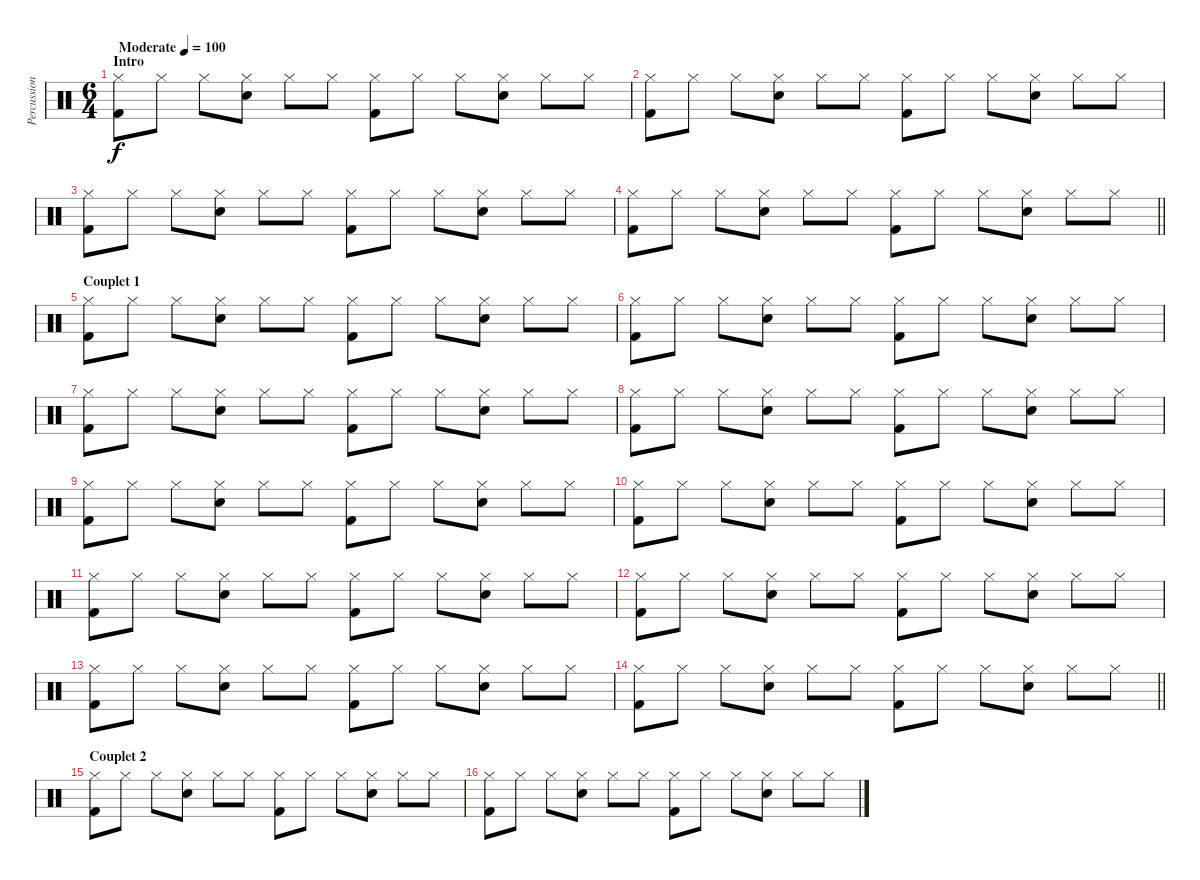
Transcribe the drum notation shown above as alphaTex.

\track ("Percussions" "Percussion") {instrument percussion}
\staff {score}
\articulation defaults
\ts (6 4)
\section ("" "Intro")
\tempo (100 "Moderate")
\clef neutral
\ks c
("Hi-Hat (closed)" "Kick (hit) 2").8{dy f} "Hi-Hat (closed)".8 "Hi-Hat (closed)".8 ("Hi-Hat (closed)" "Electric Snare (hit)").8 "Hi-Hat (closed)".8 "Hi-Hat (closed)".8 ("Hi-Hat (closed)" "Kick (hit) 2").8 "Hi-Hat (closed)".8 "Hi-Hat (closed)".8 ("Hi-Hat (closed)" "Electric Snare (hit)").8 "Hi-Hat (closed)".8 "Hi-Hat (closed)".8 |
("Hi-Hat (closed)" "Kick (hit) 2").8 "Hi-Hat (closed)".8 "Hi-Hat (closed)".8 ("Hi-Hat (closed)" "Electric Snare (hit)").8 "Hi-Hat (closed)".8 "Hi-Hat (closed)".8 ("Hi-Hat (closed)" "Kick (hit) 2").8 "Hi-Hat (closed)".8 "Hi-Hat (closed)".8 ("Hi-Hat (closed)" "Electric Snare (hit)").8 "Hi-Hat (closed)".8 "Hi-Hat (closed)".8 |
("Hi-Hat (closed)" "Kick (hit) 2").8 "Hi-Hat (closed)".8 "Hi-Hat (closed)".8 ("Hi-Hat (closed)" "Electric Snare (hit)").8 "Hi-Hat (closed)".8 "Hi-Hat (closed)".8 ("Hi-Hat (closed)" "Kick (hit) 2").8 "Hi-Hat (closed)".8 "Hi-Hat (closed)".8 ("Hi-Hat (closed)" "Electric Snare (hit)").8 "Hi-Hat (closed)".8 "Hi-Hat (closed)".8 |
\barLineRight lightlight
("Hi-Hat (closed)" "Kick (hit) 2").8 "Hi-Hat (closed)".8 "Hi-Hat (closed)".8 ("Hi-Hat (closed)" "Electric Snare (hit)").8 "Hi-Hat (closed)".8 "Hi-Hat (closed)".8 ("Hi-Hat (closed)" "Kick (hit) 2").8 "Hi-Hat (closed)".8 "Hi-Hat (closed)".8 ("Hi-Hat (closed)" "Electric Snare (hit)").8 "Hi-Hat (closed)".8 "Hi-Hat (closed)".8 |
\section ("" "Couplet 1")
("Hi-Hat (closed)" "Kick (hit) 2").8 "Hi-Hat (closed)".8 "Hi-Hat (closed)".8 ("Hi-Hat (closed)" "Electric Snare (hit)").8 "Hi-Hat (closed)".8 "Hi-Hat (closed)".8 ("Hi-Hat (closed)" "Kick (hit) 2").8 "Hi-Hat (closed)".8 "Hi-Hat (closed)".8 ("Hi-Hat (closed)" "Electric Snare (hit)").8 "Hi-Hat (closed)".8 "Hi-Hat (closed)".8 |
("Hi-Hat (closed)" "Kick (hit) 2").8 "Hi-Hat (closed)".8 "Hi-Hat (closed)".8 ("Hi-Hat (closed)" "Electric Snare (hit)").8 "Hi-Hat (closed)".8 "Hi-Hat (closed)".8 ("Hi-Hat (closed)" "Kick (hit) 2").8 "Hi-Hat (closed)".8 "Hi-Hat (closed)".8 ("Hi-Hat (closed)" "Electric Snare (hit)").8 "Hi-Hat (closed)".8 "Hi-Hat (closed)".8 |
("Hi-Hat (closed)" "Kick (hit) 2").8 "Hi-Hat (closed)".8 "Hi-Hat (closed)".8 ("Hi-Hat (closed)" "Electric Snare (hit)").8 "Hi-Hat (closed)".8 "Hi-Hat (closed)".8 ("Hi-Hat (closed)" "Kick (hit) 2").8 "Hi-Hat (closed)".8 "Hi-Hat (closed)".8 ("Hi-Hat (closed)" "Electric Snare (hit)").8 "Hi-Hat (closed)".8 "Hi-Hat (closed)".8 |
("Hi-Hat (closed)" "Kick (hit) 2").8 "Hi-Hat (closed)".8 "Hi-Hat (closed)".8 ("Hi-Hat (closed)" "Electric Snare (hit)").8 "Hi-Hat (closed)".8 "Hi-Hat (closed)".8 ("Hi-Hat (closed)" "Kick (hit) 2").8 "Hi-Hat (closed)".8 "Hi-Hat (closed)".8 ("Hi-Hat (closed)" "Electric Snare (hit)").8 "Hi-Hat (closed)".8 "Hi-Hat (closed)".8 |
("Hi-Hat (closed)" "Kick (hit) 2").8 "Hi-Hat (closed)".8 "Hi-Hat (closed)".8 ("Hi-Hat (closed)" "Electric Snare (hit)").8 "Hi-Hat (closed)".8 "Hi-Hat (closed)".8 ("Hi-Hat (closed)" "Kick (hit) 2").8 "Hi-Hat (closed)".8 "Hi-Hat (closed)".8 ("Hi-Hat (closed)" "Electric Snare (hit)").8 "Hi-Hat (closed)".8 "Hi-Hat (closed)".8 |
("Hi-Hat (closed)" "Kick (hit) 2").8 "Hi-Hat (closed)".8 "Hi-Hat (closed)".8 ("Hi-Hat (closed)" "Electric Snare (hit)").8 "Hi-Hat (closed)".8 "Hi-Hat (closed)".8 ("Hi-Hat (closed)" "Kick (hit) 2").8 "Hi-Hat (closed)".8 "Hi-Hat (closed)".8 ("Hi-Hat (closed)" "Electric Snare (hit)").8 "Hi-Hat (closed)".8 "Hi-Hat (closed)".8 |
("Hi-Hat (closed)" "Kick (hit) 2").8 "Hi-Hat (closed)".8 "Hi-Hat (closed)".8 ("Hi-Hat (closed)" "Electric Snare (hit)").8 "Hi-Hat (closed)".8 "Hi-Hat (closed)".8 ("Hi-Hat (closed)" "Kick (hit) 2").8 "Hi-Hat (closed)".8 "Hi-Hat (closed)".8 ("Hi-Hat (closed)" "Electric Snare (hit)").8 "Hi-Hat (closed)".8 "Hi-Hat (closed)".8 |
("Hi-Hat (closed)" "Kick (hit) 2").8 "Hi-Hat (closed)".8 "Hi-Hat (closed)".8 ("Hi-Hat (closed)" "Electric Snare (hit)").8 "Hi-Hat (closed)".8 "Hi-Hat (closed)".8 ("Hi-Hat (closed)" "Kick (hit) 2").8 "Hi-Hat (closed)".8 "Hi-Hat (closed)".8 ("Hi-Hat (closed)" "Electric Snare (hit)").8 "Hi-Hat (closed)".8 "Hi-Hat (closed)".8 |
("Hi-Hat (closed)" "Kick (hit) 2").8 "Hi-Hat (closed)".8 "Hi-Hat (closed)".8 ("Hi-Hat (closed)" "Electric Snare (hit)").8 "Hi-Hat (closed)".8 "Hi-Hat (closed)".8 ("Hi-Hat (closed)" "Kick (hit) 2").8 "Hi-Hat (closed)".8 "Hi-Hat (closed)".8 ("Hi-Hat (closed)" "Electric Snare (hit)").8 "Hi-Hat (closed)".8 "Hi-Hat (closed)".8 |
\barLineRight lightlight
("Hi-Hat (closed)" "Kick (hit) 2").8 "Hi-Hat (closed)".8 "Hi-Hat (closed)".8 ("Hi-Hat (closed)" "Electric Snare (hit)").8 "Hi-Hat (closed)".8 "Hi-Hat (closed)".8 ("Hi-Hat (closed)" "Kick (hit) 2").8 "Hi-Hat (closed)".8 "Hi-Hat (closed)".8 ("Hi-Hat (closed)" "Electric Snare (hit)").8 "Hi-Hat (closed)".8 "Hi-Hat (closed)".8 |
\section ("" "Couplet 2")
("Hi-Hat (closed)" "Kick (hit) 2").8 "Hi-Hat (closed)".8 "Hi-Hat (closed)".8 ("Hi-Hat (closed)" "Electric Snare (hit)").8 "Hi-Hat (closed)".8 "Hi-Hat (closed)".8 ("Hi-Hat (closed)" "Kick (hit) 2").8 "Hi-Hat (closed)".8 "Hi-Hat (closed)".8 ("Hi-Hat (closed)" "Electric Snare (hit)").8 "Hi-Hat (closed)".8 "Hi-Hat (closed)".8 |
("Hi-Hat (closed)" "Kick (hit) 2").8 "Hi-Hat (closed)".8 "Hi-Hat (closed)".8 ("Hi-Hat (closed)" "Electric Snare (hit)").8 "Hi-Hat (closed)".8 "Hi-Hat (closed)".8 ("Hi-Hat (closed)" "Kick (hit) 2").8 "Hi-Hat (closed)".8 "Hi-Hat (closed)".8 ("Hi-Hat (closed)" "Electric Snare (hit)").8 "Hi-Hat (closed)".8 "Hi-Hat (closed)".8
